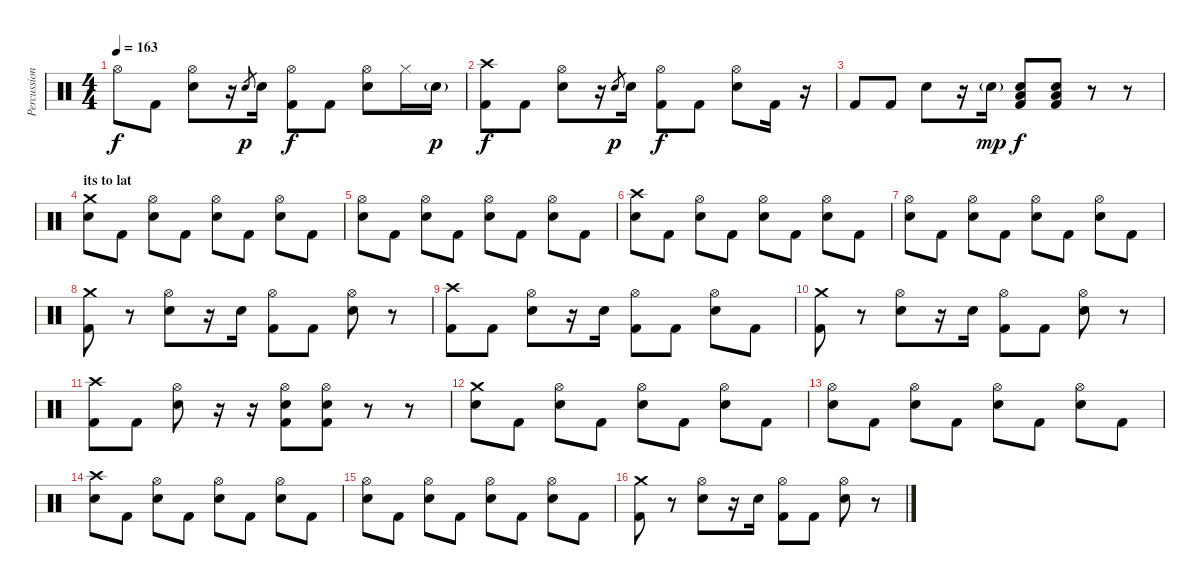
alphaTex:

\track ("Percussion" "Percussion") {instrument percussion}
\staff {score}
\articulation defaults
\ts (4 4)
\tempo 163
\clef neutral
\ks c "Hi-Hat (open)".8{dy f} "Kick (hit) 2".8
("Hi-Hat (open)" "Electric Snare (hit)").8 r.16 "Electric Snare (hit)".8{gr dy p} "Electric Snare (hit)".16 ("Hi-Hat (open)" "Kick (hit) 2").8{dy f} "Kick (hit) 2".8 ("Hi-Hat (open)" "Electric Snare (hit)").8 "Hi-Hat (closed)".16 "Electric Snare (hit)"{g}.16{dy p} |
("Crash high (hit)" "Kick (hit) 2").8{dy f} "Kick (hit) 2".8 ("Hi-Hat (open)" "Electric Snare (hit)").8 r.16 "Electric Snare (hit)".8{gr dy p} "Electric Snare (hit)".16 ("Hi-Hat (open)" "Kick (hit) 2").8{dy f} "Kick (hit) 2".8 ("Hi-Hat (open)" "Electric Snare (hit)").8 "Kick (hit) 2".16 r.16 |
"Kick (hit) 2".8 "Kick (hit) 2".8 "Electric Snare (hit)".8 r.16 "Electric Snare (hit)"{g}.16{dy mp} ("Low Floor Tom (hit)" "Electric Snare (hit)" "Kick (hit) 2").8{dy f} ("Low Floor Tom (hit)" "Electric Snare (hit)" "Kick (hit) 2").8 r.8 r.8 |
\section ("" "its to lat")
("Crash medium (hit)" "Electric Snare (hit)").8 "Kick (hit) 2".8 ("Hi-Hat (open)" "Electric Snare (hit)").8 "Kick (hit) 2".8 ("Hi-Hat (open)" "Electric Snare (hit)").8 "Kick (hit) 2".8 ("Hi-Hat (open)" "Electric Snare (hit)").8 "Kick (hit) 2".8 |
("Hi-Hat (open)" "Electric Snare (hit)").8 "Kick (hit) 2".8 ("Hi-Hat (open)" "Electric Snare (hit)").8 "Kick (hit) 2".8 ("Hi-Hat (open)" "Electric Snare (hit)").8 "Kick (hit) 2".8 ("Hi-Hat (open)" "Electric Snare (hit)").8 "Kick (hit) 2".8 |
("Crash high (hit)" "Electric Snare (hit)").8 "Kick (hit) 2".8 ("Hi-Hat (open)" "Electric Snare (hit)").8 "Kick (hit) 2".8 ("Hi-Hat (open)" "Electric Snare (hit)").8 "Kick (hit) 2".8 ("Hi-Hat (open)" "Electric Snare (hit)").8 "Kick (hit) 2".8 |
("Hi-Hat (open)" "Electric Snare (hit)").8 "Kick (hit) 2".8 ("Hi-Hat (open)" "Electric Snare (hit)").8 "Kick (hit) 2".8 ("Hi-Hat (open)" "Electric Snare (hit)").8 "Kick (hit) 2".8 ("Hi-Hat (open)" "Electric Snare (hit)").8 "Kick (hit) 2".8 |
("Crash medium (hit)" "Kick (hit) 2").8 r.8 ("Hi-Hat (open)" "Electric Snare (hit)").8 r.16 "Electric Snare (hit)".16 ("Hi-Hat (open)" "Kick (hit) 2").8 "Kick (hit) 2".8 ("Hi-Hat (open)" "Electric Snare (hit)").8 r.8 |
("Crash high (hit)" "Kick (hit) 2").8 "Kick (hit) 2".8 ("Hi-Hat (open)" "Electric Snare (hit)").8 r.16 "Electric Snare (hit)".16 ("Hi-Hat (open)" "Kick (hit) 2").8 "Kick (hit) 2".8 ("Hi-Hat (open)" "Electric Snare (hit)").8 "Kick (hit) 2".8 |
("Crash medium (hit)" "Kick (hit) 2").8 r.8 ("Hi-Hat (open)" "Electric Snare (hit)").8 r.16 "Electric Snare (hit)".16 ("Hi-Hat (open)" "Kick (hit) 2").8 "Kick (hit) 2".8 ("Hi-Hat (open)" "Electric Snare (hit)").8 r.8 |
("Crash high (hit)" "Kick (hit) 2").8 "Kick (hit) 2".8 ("Hi-Hat (open)" "Electric Snare (hit)").8 r.16 r.16 ("Hi-Hat (open)" "Electric Snare (hit)" "Kick (hit) 2").8 ("Hi-Hat (open)" "Electric Snare (hit)" "Kick (hit) 2").8 r.8 r.8 |
("Crash medium (hit)" "Electric Snare (hit)").8 "Kick (hit) 2".8 ("Hi-Hat (open)" "Electric Snare (hit)").8 "Kick (hit) 2".8 ("Hi-Hat (open)" "Electric Snare (hit)").8 "Kick (hit) 2".8 ("Hi-Hat (open)" "Electric Snare (hit)").8 "Kick (hit) 2".8 |
("Hi-Hat (open)" "Electric Snare (hit)").8 "Kick (hit) 2".8 ("Hi-Hat (open)" "Electric Snare (hit)").8 "Kick (hit) 2".8 ("Hi-Hat (open)" "Electric Snare (hit)").8 "Kick (hit) 2".8 ("Hi-Hat (open)" "Electric Snare (hit)").8 "Kick (hit) 2".8 |
("Crash high (hit)" "Electric Snare (hit)").8 "Kick (hit) 2".8 ("Hi-Hat (open)" "Electric Snare (hit)").8 "Kick (hit) 2".8 ("Hi-Hat (open)" "Electric Snare (hit)").8 "Kick (hit) 2".8 ("Hi-Hat (open)" "Electric Snare (hit)").8 "Kick (hit) 2".8 |
("Hi-Hat (open)" "Electric Snare (hit)").8 "Kick (hit) 2".8 ("Hi-Hat (open)" "Electric Snare (hit)").8 "Kick (hit) 2".8 ("Hi-Hat (open)" "Electric Snare (hit)").8 "Kick (hit) 2".8 ("Hi-Hat (open)" "Electric Snare (hit)").8 "Kick (hit) 2".8 |
("Crash medium (hit)" "Kick (hit) 2").8 r.8 ("Hi-Hat (open)" "Electric Snare (hit)").8 r.16 "Electric Snare (hit)".16 ("Hi-Hat (open)" "Kick (hit) 2").8 "Kick (hit) 2".8 ("Hi-Hat (open)" "Electric Snare (hit)").8 r.8
